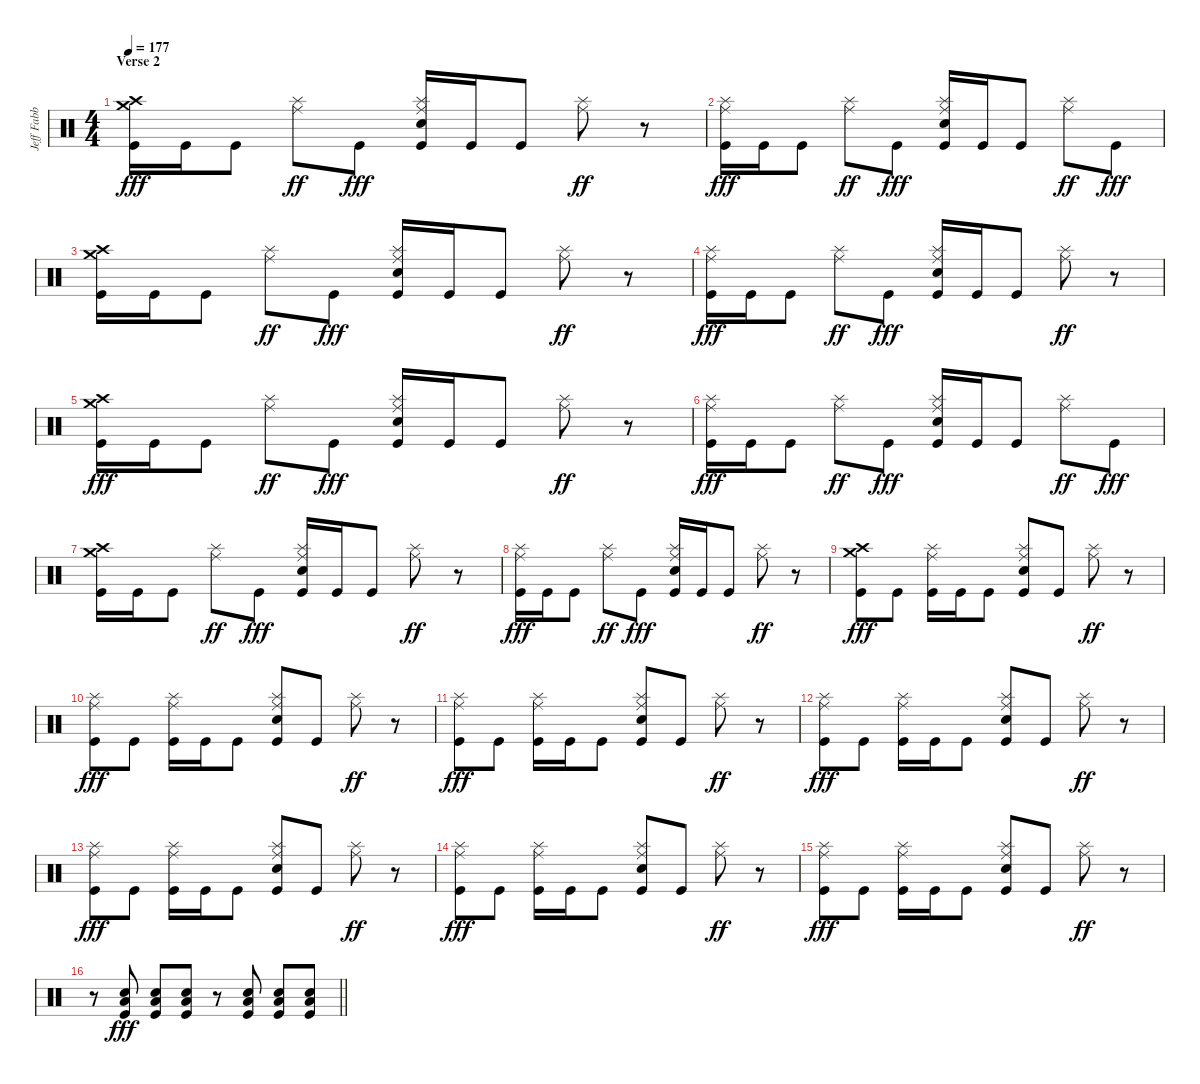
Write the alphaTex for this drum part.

\track ("Jeff Fabb (Drums)" "Jeff Fabb ") {instrument percussion}
\staff {score}
\articulation defaults
\ts (4 4)
\section ("" "Verse 2")
\tempo 177
\clef neutral
\ks c
("Crash high (hit)" "Crash medium (hit)" "Kick (hit)").16{dy fff} "Kick (hit)".16 "Kick (hit)".8 ("Splash (hit)" "Ride (middle)").8{dy ff} "Kick (hit)".8{dy fff} ("Splash (hit)" "Ride (middle)" "Electric Snare (hit)" "Kick (hit)").16 "Kick (hit)".16 "Kick (hit)".8 ("Splash (hit)" "Ride (middle)").8{dy ff} r.8 |
("Splash (hit)" "Ride (middle)" "Kick (hit)").16{dy fff} "Kick (hit)".16 "Kick (hit)".8 ("Splash (hit)" "Ride (middle)").8{dy ff} "Kick (hit)".8{dy fff} ("Splash (hit)" "Ride (middle)" "Electric Snare (hit)" "Kick (hit)").16 "Kick (hit)".16 "Kick (hit)".8 ("Splash (hit)" "Ride (middle)").8{dy ff} "Kick (hit)".8{dy fff} |
("Crash high (hit)" "Crash medium (hit)" "Kick (hit)").16 "Kick (hit)".16 "Kick (hit)".8 ("Splash (hit)" "Ride (middle)").8{dy ff} "Kick (hit)".8{dy fff} ("Splash (hit)" "Ride (middle)" "Electric Snare (hit)" "Kick (hit)").16 "Kick (hit)".16 "Kick (hit)".8 ("Splash (hit)" "Ride (middle)").8{dy ff} r.8 |
("Splash (hit)" "Ride (middle)" "Kick (hit)").16{dy fff} "Kick (hit)".16 "Kick (hit)".8 ("Splash (hit)" "Ride (middle)").8{dy ff} "Kick (hit)".8{dy fff} ("Splash (hit)" "Ride (middle)" "Electric Snare (hit)" "Kick (hit)").16 "Kick (hit)".16 "Kick (hit)".8 ("Splash (hit)" "Ride (middle)").8{dy ff} r.8 |
("Crash high (hit)" "Crash medium (hit)" "Kick (hit)").16{dy fff} "Kick (hit)".16 "Kick (hit)".8 ("Splash (hit)" "Ride (middle)").8{dy ff} "Kick (hit)".8{dy fff} ("Splash (hit)" "Ride (middle)" "Electric Snare (hit)" "Kick (hit)").16 "Kick (hit)".16 "Kick (hit)".8 ("Splash (hit)" "Ride (middle)").8{dy ff} r.8 |
("Splash (hit)" "Ride (middle)" "Kick (hit)").16{dy fff} "Kick (hit)".16 "Kick (hit)".8 ("Splash (hit)" "Ride (middle)").8{dy ff} "Kick (hit)".8{dy fff} ("Splash (hit)" "Ride (middle)" "Electric Snare (hit)" "Kick (hit)").16 "Kick (hit)".16 "Kick (hit)".8 ("Splash (hit)" "Ride (middle)").8{dy ff} "Kick (hit)".8{dy fff} |
("Crash high (hit)" "Crash medium (hit)" "Kick (hit)").16 "Kick (hit)".16 "Kick (hit)".8 ("Splash (hit)" "Ride (middle)").8{dy ff} "Kick (hit)".8{dy fff} ("Splash (hit)" "Ride (middle)" "Electric Snare (hit)" "Kick (hit)").16 "Kick (hit)".16 "Kick (hit)".8 ("Splash (hit)" "Ride (middle)").8{dy ff} r.8 |
("Splash (hit)" "Ride (middle)" "Kick (hit)").16{dy fff} "Kick (hit)".16 "Kick (hit)".8 ("Splash (hit)" "Ride (middle)").8{dy ff} "Kick (hit)".8{dy fff} ("Splash (hit)" "Ride (middle)" "Electric Snare (hit)" "Kick (hit)").16 "Kick (hit)".16 "Kick (hit)".8 ("Splash (hit)" "Ride (middle)").8{dy ff} r.8 |
("Crash high (hit)" "Crash medium (hit)" "Kick (hit)").8{dy fff} "Kick (hit)".8 ("Splash (hit)" "Ride (middle)" "Kick (hit)").16 "Kick (hit)".16 "Kick (hit)".8 ("Splash (hit)" "Ride (middle)" "Electric Snare (hit)" "Kick (hit)").8 "Kick (hit)".8 ("Splash (hit)" "Ride (middle)").8{dy ff} r.8 |
("Splash (hit)" "Ride (middle)" "Kick (hit)").8{dy fff} "Kick (hit)".8 ("Splash (hit)" "Ride (middle)" "Kick (hit)").16 "Kick (hit)".16 "Kick (hit)".8 ("Splash (hit)" "Ride (middle)" "Electric Snare (hit)" "Kick (hit)").8 "Kick (hit)".8 ("Splash (hit)" "Ride (middle)").8{dy ff} r.8 |
("Splash (hit)" "Ride (middle)" "Kick (hit)").8{dy fff} "Kick (hit)".8 ("Splash (hit)" "Ride (middle)" "Kick (hit)").16 "Kick (hit)".16 "Kick (hit)".8 ("Splash (hit)" "Ride (middle)" "Electric Snare (hit)" "Kick (hit)").8 "Kick (hit)".8 ("Splash (hit)" "Ride (middle)").8{dy ff} r.8 |
("Splash (hit)" "Ride (middle)" "Kick (hit)").8{dy fff} "Kick (hit)".8 ("Splash (hit)" "Ride (middle)" "Kick (hit)").16 "Kick (hit)".16 "Kick (hit)".8 ("Splash (hit)" "Ride (middle)" "Electric Snare (hit)" "Kick (hit)").8 "Kick (hit)".8 ("Splash (hit)" "Ride (middle)").8{dy ff} r.8 |
("Splash (hit)" "Ride (middle)" "Kick (hit)").8{dy fff} "Kick (hit)".8 ("Splash (hit)" "Ride (middle)" "Kick (hit)").16 "Kick (hit)".16 "Kick (hit)".8 ("Splash (hit)" "Ride (middle)" "Electric Snare (hit)" "Kick (hit)").8 "Kick (hit)".8 ("Splash (hit)" "Ride (middle)").8{dy ff} r.8 |
("Splash (hit)" "Ride (middle)" "Kick (hit)").8{dy fff} "Kick (hit)".8 ("Splash (hit)" "Ride (middle)" "Kick (hit)").16 "Kick (hit)".16 "Kick (hit)".8 ("Splash (hit)" "Ride (middle)" "Electric Snare (hit)" "Kick (hit)").8 "Kick (hit)".8 ("Splash (hit)" "Ride (middle)").8{dy ff} r.8 |
("Splash (hit)" "Ride (middle)" "Kick (hit)").8{dy fff} "Kick (hit)".8 ("Splash (hit)" "Ride (middle)" "Kick (hit)").16 "Kick (hit)".16 "Kick (hit)".8 ("Splash (hit)" "Ride (middle)" "Electric Snare (hit)" "Kick (hit)").8 "Kick (hit)".8 ("Splash (hit)" "Ride (middle)").8{dy ff} r.8 |
\barLineRight lightlight
r.8 ("Low Floor Tom (hit)" "Electric Snare (hit)" "Kick (hit)").8{dy fff} ("Low Floor Tom (hit)" "Electric Snare (hit)" "Kick (hit)").8 ("Low Floor Tom (hit)" "Electric Snare (hit)" "Kick (hit)").8 r.8 ("Low Floor Tom (hit)" "Electric Snare (hit)" "Kick (hit)").8 ("Low Floor Tom (hit)" "Electric Snare (hit)" "Kick (hit)").8 ("Low Floor Tom (hit)" "Electric Snare (hit)" "Kick (hit)").8
